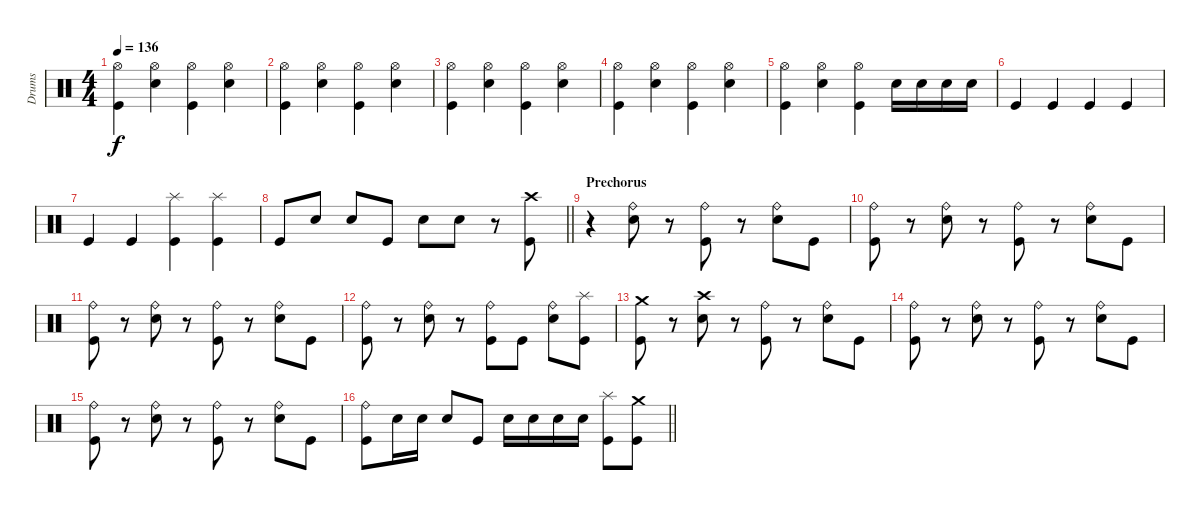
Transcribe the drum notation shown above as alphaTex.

\track ("Drums" "Drums") {instrument percussion}
\staff {score}
\articulation defaults
\ts (4 4)
\tempo 136
\clef neutral
\ks c
("Kick (hit)" "Hi-Hat (open)").4{dy f} ("Electric Snare (hit)" "Hi-Hat (open)").4 ("Kick (hit)" "Hi-Hat (open)").4 ("Electric Snare (hit)" "Hi-Hat (open)").4 |
("Kick (hit)" "Hi-Hat (open)").4 ("Electric Snare (hit)" "Hi-Hat (open)").4 ("Kick (hit)" "Hi-Hat (open)").4 ("Electric Snare (hit)" "Hi-Hat (open)").4 |
("Kick (hit)" "Hi-Hat (open)").4 ("Electric Snare (hit)" "Hi-Hat (open)").4 ("Kick (hit)" "Hi-Hat (open)").4 ("Electric Snare (hit)" "Hi-Hat (open)").4 |
("Kick (hit)" "Hi-Hat (open)").4 ("Electric Snare (hit)" "Hi-Hat (open)").4 ("Kick (hit)" "Hi-Hat (open)").4 ("Electric Snare (hit)" "Hi-Hat (open)").4 |
("Kick (hit)" "Hi-Hat (open)").4 ("Electric Snare (hit)" "Hi-Hat (open)").4 ("Kick (hit)" "Hi-Hat (open)").4 "Electric Snare (hit)".16 "Electric Snare (hit)".16 "Electric Snare (hit)".16 "Electric Snare (hit)".16 |
"Kick (hit)".4 "Kick (hit)".4 "Kick (hit)".4 "Kick (hit)".4 |
"Kick (hit)".4 "Kick (hit)".4 ("Kick (hit)" "Splash (hit)").4 ("Kick (hit)" "Splash (hit)").4 |
\barLineRight lightlight "Kick (hit)".8 "Electric Snare (hit)".8 "Electric Snare (hit)".8 "Kick (hit)".8 "Electric Snare (hit)".8 "Electric Snare (hit)".8
r.8 ("Kick (hit)" "Crash high (hit)").8 |
\section ("" "Prechorus")
r.4 ("Electric Snare (hit)" "Ride (bell)").8 r.8 ("Kick (hit)" "Ride (bell)").8 r.8 ("Electric Snare (hit)" "Ride (bell)").8 "Kick (hit)".8 |
("Kick (hit)" "Ride (bell)").8 r.8 ("Electric Snare (hit)" "Ride (bell)").8 r.8 ("Kick (hit)" "Ride (bell)").8 r.8 ("Electric Snare (hit)" "Ride (bell)").8 "Kick (hit)".8 |
("Kick (hit)" "Ride (bell)").8 r.8 ("Electric Snare (hit)" "Ride (bell)").8 r.8 ("Kick (hit)" "Ride (bell)").8 r.8 ("Electric Snare (hit)" "Ride (bell)").8 "Kick (hit)".8 |
("Kick (hit)" "Ride (bell)").8 r.8 ("Electric Snare (hit)" "Ride (bell)").8 r.8 ("Kick (hit)" "Ride (bell)").8 "Kick (hit)".8 ("Electric Snare (hit)" "Ride (bell)").8 ("Kick (hit)" "Splash (hit)").8 |
("Kick (hit)" "Crash medium (hit)").8 r.8 ("Electric Snare (hit)" "Crash high (hit)").8 r.8 ("Kick (hit)" "Ride (bell)").8 r.8 ("Electric Snare (hit)" "Ride (bell)").8 "Kick (hit)".8 |
("Kick (hit)" "Ride (bell)").8 r.8 ("Electric Snare (hit)" "Ride (bell)").8 r.8 ("Kick (hit)" "Ride (bell)").8 r.8 ("Electric Snare (hit)" "Ride (bell)").8 "Kick (hit)".8 |
("Kick (hit)" "Ride (bell)").8 r.8 ("Electric Snare (hit)" "Ride (bell)").8 r.8 ("Kick (hit)" "Ride (bell)").8 r.8 ("Electric Snare (hit)" "Ride (bell)").8 "Kick (hit)".8 |
\barLineRight lightlight
("Kick (hit)" "Ride (bell)").8 "Electric Snare (hit)".16 "Electric Snare (hit)".16 "Electric Snare (hit)".8 "Kick (hit)".8 "Electric Snare (hit)".16 "Electric Snare (hit)".16 "Electric Snare (hit)".16 "Electric Snare (hit)".16 ("Kick (hit)" "Splash (hit)").8 ("Kick (hit)" "Crash medium (hit)").8
